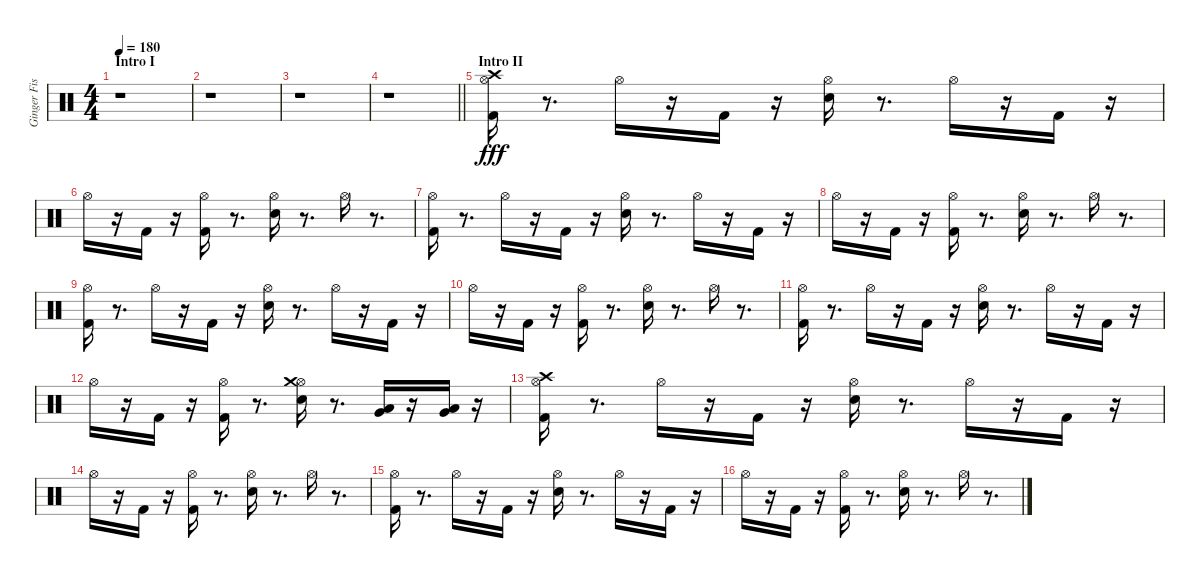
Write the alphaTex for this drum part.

\track ("Ginger Fish" "Ginger Fis") {instrument percussion}
\staff {score}
\articulation defaults
\ts (4 4)
\section ("" "Intro I")
\tempo 180
\clef neutral
\ks c
r.1{dy fff} |
r.1 |
r.1 |
\barLineRight lightlight
r.1 |
\section ("" "Intro II")
("Kick (hit) 2" "Hi-Hat (open)" "Crash high (hit)").16 r.8{d} "Hi-Hat (open)".16 r.16 "Kick (hit) 2".16 r.16 ("Electric Snare (hit)" "Hi-Hat (open)").16 r.8{d} "Hi-Hat (open)".16 r.16 "Kick (hit) 2".16 r.16 |
"Hi-Hat (open)".16 r.16 "Kick (hit) 2".16 r.16 ("Hi-Hat (open)" "Kick (hit) 2").16 r.8{d} ("Hi-Hat (open)" "Electric Snare (hit)").16 r.8{d} "Hi-Hat (open)".16 r.8{d} |
("Kick (hit) 2" "Hi-Hat (open)").16 r.8{d} "Hi-Hat (open)".16 r.16 "Kick (hit) 2".16 r.16 ("Electric Snare (hit)" "Hi-Hat (open)").16 r.8{d} "Hi-Hat (open)".16 r.16 "Kick (hit) 2".16 r.16 |
"Hi-Hat (open)".16 r.16 "Kick (hit) 2".16 r.16 ("Hi-Hat (open)" "Kick (hit) 2").16 r.8{d} ("Hi-Hat (open)" "Electric Snare (hit)").16 r.8{d} "Hi-Hat (open)".16 r.8{d} |
("Kick (hit) 2" "Hi-Hat (open)").16 r.8{d} "Hi-Hat (open)".16 r.16 "Kick (hit) 2".16 r.16 ("Electric Snare (hit)" "Hi-Hat (open)").16 r.8{d} "Hi-Hat (open)".16 r.16 "Kick (hit) 2".16 r.16 |
"Hi-Hat (open)".16 r.16 "Kick (hit) 2".16 r.16 ("Hi-Hat (open)" "Kick (hit) 2").16 r.8{d} ("Hi-Hat (open)" "Electric Snare (hit)").16 r.8{d} "Hi-Hat (open)".16 r.8{d} |
("Kick (hit) 2" "Hi-Hat (open)").16 r.8{d} "Hi-Hat (open)".16 r.16 "Kick (hit) 2".16 r.16 ("Electric Snare (hit)" "Hi-Hat (open)").16 r.8{d} "Hi-Hat (open)".16 r.16 "Kick (hit) 2".16 r.16 |
"Hi-Hat (open)".16 r.16 "Kick (hit) 2".16 r.16 ("Hi-Hat (open)" "Kick (hit) 2").16 r.8{d} ("Hi-Hat (open)" "Electric Snare (hit)" "Crash medium (hit)").16 r.8{d} ("Low Tom (hit)" "Very Low Tom (hit)").16 r.16 ("Very Low Tom (hit)" "Low Floor Tom (hit)").16 r.16 |
("Crash high (hit)" "Kick (hit) 2" "Hi-Hat (open)").16 r.8{d} "Hi-Hat (open)".16 r.16 "Kick (hit) 2".16 r.16 ("Electric Snare (hit)" "Hi-Hat (open)").16 r.8{d} "Hi-Hat (open)".16 r.16 "Kick (hit) 2".16 r.16 |
"Hi-Hat (open)".16 r.16 "Kick (hit) 2".16 r.16 ("Hi-Hat (open)" "Kick (hit) 2").16 r.8{d} ("Hi-Hat (open)" "Electric Snare (hit)").16 r.8{d} "Hi-Hat (open)".16 r.8{d} |
("Kick (hit) 2" "Hi-Hat (open)").16 r.8{d} "Hi-Hat (open)".16 r.16 "Kick (hit) 2".16 r.16 ("Electric Snare (hit)" "Hi-Hat (open)").16 r.8{d} "Hi-Hat (open)".16 r.16 "Kick (hit) 2".16 r.16 |
"Hi-Hat (open)".16 r.16 "Kick (hit) 2".16 r.16 ("Hi-Hat (open)" "Kick (hit) 2").16 r.8{d} ("Hi-Hat (open)" "Electric Snare (hit)").16 r.8{d} "Hi-Hat (open)".16 r.8{d}
